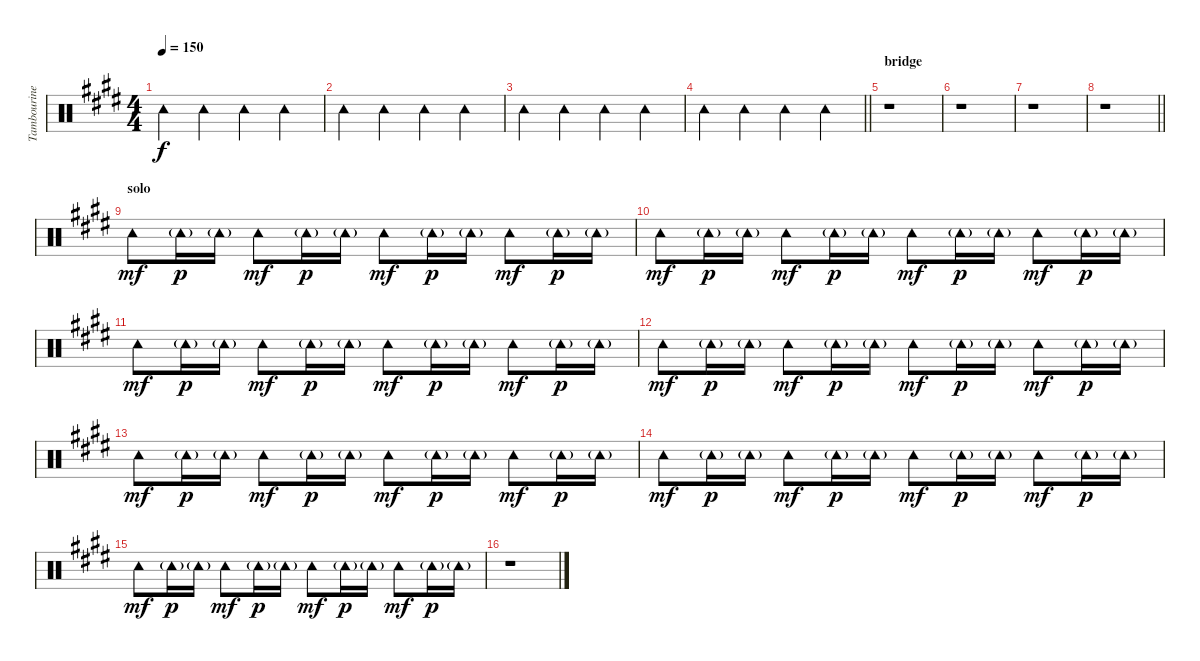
\track ("Tambourine" "Tambourine") {instrument percussion}
\staff {score}
\articulation defaults
\ts (4 4)
\tempo 150
\clef neutral
\ks e "Tambourine (hit)".4{dy f} "Tambourine (hit)".4 "Tambourine (hit)".4 "Tambourine (hit)".4
|
"Tambourine (hit)".4 "Tambourine (hit)".4 "Tambourine (hit)".4 "Tambourine (hit)".4 |
"Tambourine (hit)".4 "Tambourine (hit)".4 "Tambourine (hit)".4 "Tambourine (hit)".4 |
\barLineRight lightlight "Tambourine (hit)".4 "Tambourine (hit)".4 "Tambourine (hit)".4 "Tambourine (hit)".4
|
\section ("" "bridge")
r.1 |
r.1 |
r.1 |
\barLineRight lightlight
r.1 |
\section ("" "solo")
"Tambourine (hit)".8{dy mf} "Tambourine (hit)"{g}.16{dy p} "Tambourine (hit)"{g}.16 "Tambourine (hit)".8{dy mf} "Tambourine (hit)"{g}.16{dy p} "Tambourine (hit)"{g}.16 "Tambourine (hit)".8{dy mf} "Tambourine (hit)"{g}.16{dy p} "Tambourine (hit)"{g}.16 "Tambourine (hit)".8{dy mf} "Tambourine (hit)"{g}.16{dy p} "Tambourine (hit)"{g}.16 |
"Tambourine (hit)".8{dy mf} "Tambourine (hit)"{g}.16{dy p} "Tambourine (hit)"{g}.16 "Tambourine (hit)".8{dy mf} "Tambourine (hit)"{g}.16{dy p} "Tambourine (hit)"{g}.16 "Tambourine (hit)".8{dy mf} "Tambourine (hit)"{g}.16{dy p} "Tambourine (hit)"{g}.16 "Tambourine (hit)".8{dy mf} "Tambourine (hit)"{g}.16{dy p} "Tambourine (hit)"{g}.16 |
"Tambourine (hit)".8{dy mf} "Tambourine (hit)"{g}.16{dy p} "Tambourine (hit)"{g}.16 "Tambourine (hit)".8{dy mf} "Tambourine (hit)"{g}.16{dy p} "Tambourine (hit)"{g}.16 "Tambourine (hit)".8{dy mf} "Tambourine (hit)"{g}.16{dy p} "Tambourine (hit)"{g}.16 "Tambourine (hit)".8{dy mf} "Tambourine (hit)"{g}.16{dy p} "Tambourine (hit)"{g}.16 |
"Tambourine (hit)".8{dy mf} "Tambourine (hit)"{g}.16{dy p} "Tambourine (hit)"{g}.16 "Tambourine (hit)".8{dy mf} "Tambourine (hit)"{g}.16{dy p} "Tambourine (hit)"{g}.16 "Tambourine (hit)".8{dy mf} "Tambourine (hit)"{g}.16{dy p} "Tambourine (hit)"{g}.16 "Tambourine (hit)".8{dy mf} "Tambourine (hit)"{g}.16{dy p} "Tambourine (hit)"{g}.16 |
"Tambourine (hit)".8{dy mf} "Tambourine (hit)"{g}.16{dy p} "Tambourine (hit)"{g}.16 "Tambourine (hit)".8{dy mf} "Tambourine (hit)"{g}.16{dy p} "Tambourine (hit)"{g}.16 "Tambourine (hit)".8{dy mf} "Tambourine (hit)"{g}.16{dy p} "Tambourine (hit)"{g}.16 "Tambourine (hit)".8{dy mf} "Tambourine (hit)"{g}.16{dy p} "Tambourine (hit)"{g}.16 |
"Tambourine (hit)".8{dy mf} "Tambourine (hit)"{g}.16{dy p} "Tambourine (hit)"{g}.16 "Tambourine (hit)".8{dy mf} "Tambourine (hit)"{g}.16{dy p} "Tambourine (hit)"{g}.16 "Tambourine (hit)".8{dy mf} "Tambourine (hit)"{g}.16{dy p} "Tambourine (hit)"{g}.16 "Tambourine (hit)".8{dy mf} "Tambourine (hit)"{g}.16{dy p} "Tambourine (hit)"{g}.16 |
"Tambourine (hit)".8{dy mf} "Tambourine (hit)"{g}.16{dy p} "Tambourine (hit)"{g}.16 "Tambourine (hit)".8{dy mf} "Tambourine (hit)"{g}.16{dy p} "Tambourine (hit)"{g}.16 "Tambourine (hit)".8{dy mf} "Tambourine (hit)"{g}.16{dy p} "Tambourine (hit)"{g}.16 "Tambourine (hit)".8{dy mf} "Tambourine (hit)"{g}.16{dy p} "Tambourine (hit)"{g}.16 |
r.1
